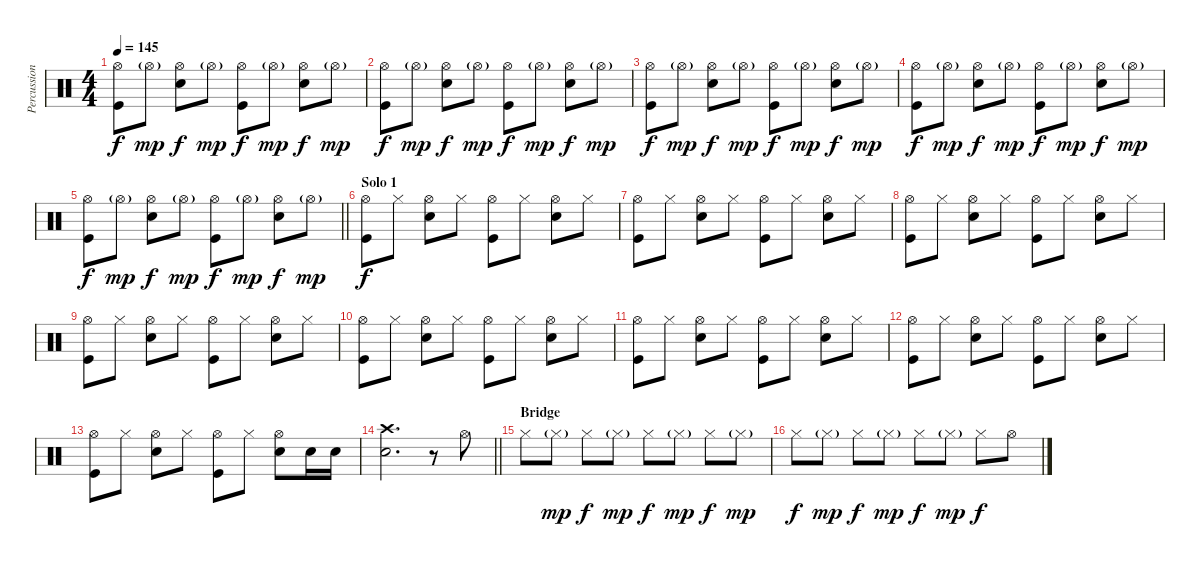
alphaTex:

\track ("Percussion" "Percussion") {instrument percussion}
\staff {score}
\articulation defaults
\ts (4 4)
\tempo 145
\clef neutral
\ks c
("Hi-Hat (open)" "Kick (hit)").8{dy f} "Hi-Hat (open)"{g}.8{dy mp} ("Hi-Hat (open)" "Snare (hit) 2").8{dy f} "Hi-Hat (open)"{g}.8{dy mp} ("Hi-Hat (open)" "Kick (hit)").8{dy f} "Hi-Hat (open)"{g}.8{dy mp} ("Hi-Hat (open)" "Snare (hit) 2").8{dy f} "Hi-Hat (open)"{g}.8{dy mp} |
("Hi-Hat (open)" "Kick (hit)").8{dy f} "Hi-Hat (open)"{g}.8{dy mp} ("Hi-Hat (open)" "Snare (hit) 2").8{dy f} "Hi-Hat (open)"{g}.8{dy mp} ("Hi-Hat (open)" "Kick (hit)").8{dy f} "Hi-Hat (open)"{g}.8{dy mp} ("Hi-Hat (open)" "Snare (hit) 2").8{dy f} "Hi-Hat (open)"{g}.8{dy mp} |
("Hi-Hat (open)" "Kick (hit)").8{dy f} "Hi-Hat (open)"{g}.8{dy mp} ("Hi-Hat (open)" "Snare (hit) 2").8{dy f} "Hi-Hat (open)"{g}.8{dy mp} ("Hi-Hat (open)" "Kick (hit)").8{dy f} "Hi-Hat (open)"{g}.8{dy mp} ("Hi-Hat (open)" "Snare (hit) 2").8{dy f} "Hi-Hat (open)"{g}.8{dy mp} |
("Hi-Hat (open)" "Kick (hit)").8{dy f} "Hi-Hat (open)"{g}.8{dy mp} ("Hi-Hat (open)" "Snare (hit) 2").8{dy f} "Hi-Hat (open)"{g}.8{dy mp} ("Hi-Hat (open)" "Kick (hit)").8{dy f} "Hi-Hat (open)"{g}.8{dy mp} ("Hi-Hat (open)" "Snare (hit) 2").8{dy f} "Hi-Hat (open)"{g}.8{dy mp} |
\barLineRight lightlight
("Hi-Hat (open)" "Kick (hit)").8{dy f} "Hi-Hat (open)"{g}.8{dy mp} ("Hi-Hat (open)" "Snare (hit) 2").8{dy f} "Hi-Hat (open)"{g}.8{dy mp} ("Hi-Hat (open)" "Kick (hit)").8{dy f} "Hi-Hat (open)"{g}.8{dy mp} ("Hi-Hat (open)" "Snare (hit) 2").8{dy f} "Hi-Hat (open)"{g}.8{dy mp} |
\section ("" "Solo 1")
("Hi-Hat (open)" "Kick (hit)").8{dy f} "Hi-Hat (closed)".8 ("Hi-Hat (open)" "Snare (hit) 2").8 "Hi-Hat (closed)".8 ("Hi-Hat (open)" "Kick (hit)").8 "Hi-Hat (closed)".8 ("Hi-Hat (open)" "Snare (hit) 2").8 "Hi-Hat (closed)".8 |
("Hi-Hat (open)" "Kick (hit)").8 "Hi-Hat (closed)".8 ("Hi-Hat (open)" "Snare (hit) 2").8 "Hi-Hat (closed)".8 ("Hi-Hat (open)" "Kick (hit)").8 "Hi-Hat (closed)".8 ("Hi-Hat (open)" "Snare (hit) 2").8 "Hi-Hat (closed)".8 |
("Hi-Hat (open)" "Kick (hit)").8 "Hi-Hat (closed)".8 ("Hi-Hat (open)" "Snare (hit) 2").8 "Hi-Hat (closed)".8 ("Hi-Hat (open)" "Kick (hit)").8 "Hi-Hat (closed)".8 ("Hi-Hat (open)" "Snare (hit) 2").8 "Hi-Hat (closed)".8 |
("Hi-Hat (open)" "Kick (hit)").8 "Hi-Hat (closed)".8 ("Hi-Hat (open)" "Snare (hit) 2").8 "Hi-Hat (closed)".8 ("Hi-Hat (open)" "Kick (hit)").8 "Hi-Hat (closed)".8 ("Hi-Hat (open)" "Snare (hit) 2").8 "Hi-Hat (closed)".8 |
("Hi-Hat (open)" "Kick (hit)").8 "Hi-Hat (closed)".8 ("Hi-Hat (open)" "Snare (hit) 2").8 "Hi-Hat (closed)".8 ("Hi-Hat (open)" "Kick (hit)").8 "Hi-Hat (closed)".8 ("Hi-Hat (open)" "Snare (hit) 2").8 "Hi-Hat (closed)".8 |
("Hi-Hat (open)" "Kick (hit)").8 "Hi-Hat (closed)".8 ("Hi-Hat (open)" "Snare (hit) 2").8 "Hi-Hat (closed)".8 ("Hi-Hat (open)" "Kick (hit)").8 "Hi-Hat (closed)".8 ("Hi-Hat (open)" "Snare (hit) 2").8 "Hi-Hat (closed)".8 |
("Hi-Hat (open)" "Kick (hit)").8 "Hi-Hat (closed)".8 ("Hi-Hat (open)" "Snare (hit) 2").8 "Hi-Hat (closed)".8 ("Hi-Hat (open)" "Kick (hit)").8 "Hi-Hat (closed)".8 ("Hi-Hat (open)" "Snare (hit) 2").8 "Hi-Hat (closed)".8 |
("Hi-Hat (open)" "Kick (hit)").8 "Hi-Hat (closed)".8 ("Hi-Hat (open)" "Snare (hit) 2").8 "Hi-Hat (closed)".8 ("Hi-Hat (open)" "Kick (hit)").8 "Hi-Hat (closed)".8 ("Hi-Hat (open)" "Snare (hit) 2").8 "Snare (hit) 2".16 "Snare (hit) 2".16 |
\barLineRight lightlight
("Crash high (hit)" "Snare (hit) 2").2{d} r.8 "Hi-Hat (open)".8 |
\section ("" "Bridge")
"Hi-Hat (closed)".8 "Hi-Hat (closed)"{g}.8{dy mp} "Hi-Hat (closed)".8{dy f} "Hi-Hat (closed)"{g}.8{dy mp} "Hi-Hat (closed)".8{dy f} "Hi-Hat (closed)"{g}.8{dy mp} "Hi-Hat (closed)".8{dy f} "Hi-Hat (closed)"{g}.8{dy mp} |
"Hi-Hat (closed)".8{dy f} "Hi-Hat (closed)"{g}.8{dy mp} "Hi-Hat (closed)".8{dy f} "Hi-Hat (closed)"{g}.8{dy mp} "Hi-Hat (closed)".8{dy f} "Hi-Hat (closed)"{g}.8{dy mp} "Hi-Hat (closed)".8{dy f} "Hi-Hat (open)".8
